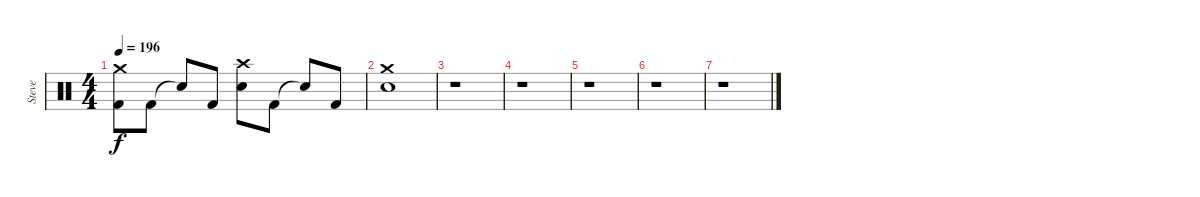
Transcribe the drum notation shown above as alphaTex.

\track ("Steve" "Steve") {instrument percussion}
\staff {score}
\articulation defaults
\ts (4 4)
\tempo 196
\clef neutral
\ks c
("Crash medium (hit)" "Kick (hit) 2").8{dy f} "Kick (hit) 2".8 "Snare (hit)"{t}.8 "Kick (hit) 2".8 ("Crash high (hit)" "Electric Snare (hit)").8 "Kick (hit) 2".8 "Snare (hit)"{t}.8 "Kick (hit) 2".8 |
("Crash medium (hit)" "Electric Snare (hit)").1 |
r.1 |
r.1 |
r.1 |
r.1 |
r.1
